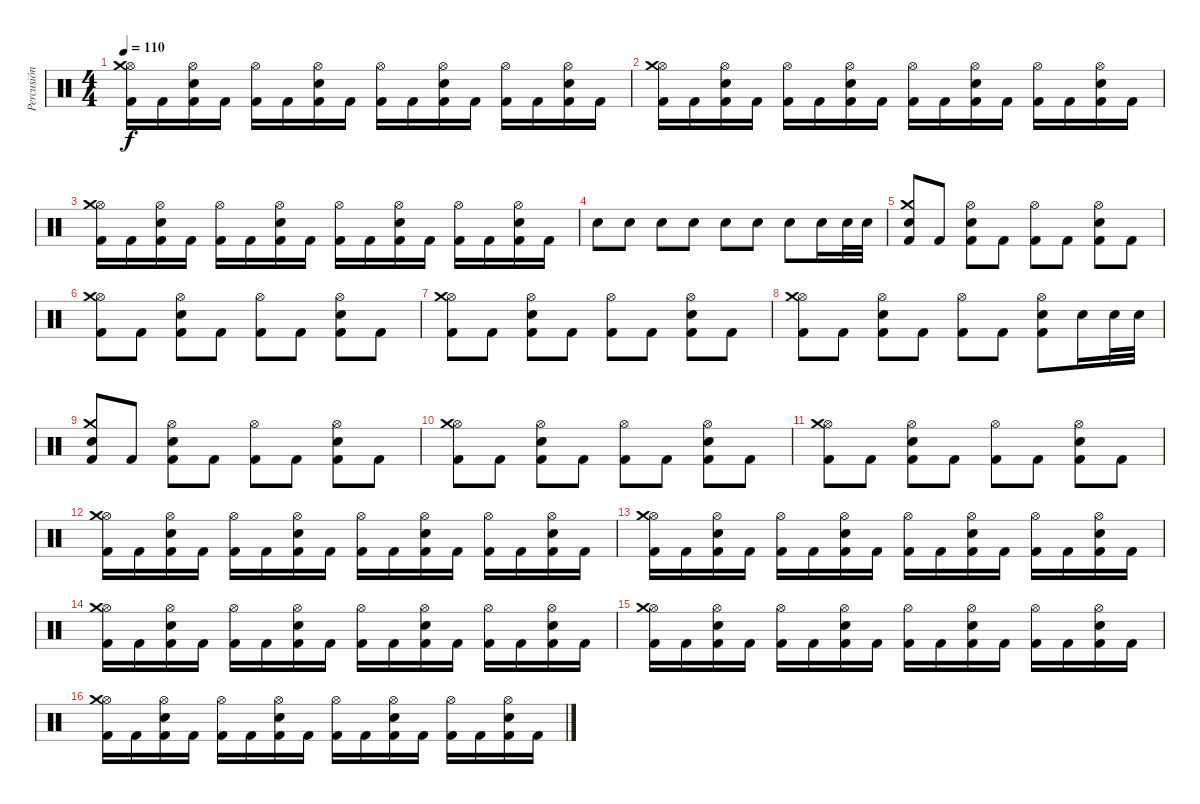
\track ("Percusión" "Percusión") {instrument percussion}
\staff {score}
\articulation defaults
\ts (4 4)
\tempo 110
\clef neutral
\ks c
("Hi-Hat (open)" "Kick (hit) 2" "Crash medium (hit)").16{dy f} "Kick (hit) 2".16 ("Hi-Hat (open)" "Electric Snare (hit)" "Kick (hit) 2").16 "Kick (hit) 2".16 ("Hi-Hat (open)" "Kick (hit) 2").16 "Kick (hit) 2".16 ("Hi-Hat (open)" "Electric Snare (hit)" "Kick (hit) 2").16 "Kick (hit) 2".16 ("Hi-Hat (open)" "Kick (hit) 2").16 "Kick (hit) 2".16 ("Hi-Hat (open)" "Electric Snare (hit)" "Kick (hit) 2").16 "Kick (hit) 2".16 ("Hi-Hat (open)" "Kick (hit) 2").16 "Kick (hit) 2".16 ("Hi-Hat (open)" "Electric Snare (hit)" "Kick (hit) 2").16 "Kick (hit) 2".16 |
("Hi-Hat (open)" "Kick (hit) 2" "Crash medium (hit)").16 "Kick (hit) 2".16 ("Hi-Hat (open)" "Electric Snare (hit)" "Kick (hit) 2").16 "Kick (hit) 2".16 ("Hi-Hat (open)" "Kick (hit) 2").16 "Kick (hit) 2".16 ("Hi-Hat (open)" "Electric Snare (hit)" "Kick (hit) 2").16 "Kick (hit) 2".16 ("Hi-Hat (open)" "Kick (hit) 2").16 "Kick (hit) 2".16 ("Hi-Hat (open)" "Electric Snare (hit)" "Kick (hit) 2").16 "Kick (hit) 2".16 ("Hi-Hat (open)" "Kick (hit) 2").16 "Kick (hit) 2".16 ("Hi-Hat (open)" "Electric Snare (hit)" "Kick (hit) 2").16 "Kick (hit) 2".16 |
("Hi-Hat (open)" "Kick (hit) 2" "Crash medium (hit)").16 "Kick (hit) 2".16 ("Hi-Hat (open)" "Electric Snare (hit)" "Kick (hit) 2").16 "Kick (hit) 2".16 ("Hi-Hat (open)" "Kick (hit) 2").16 "Kick (hit) 2".16 ("Hi-Hat (open)" "Electric Snare (hit)" "Kick (hit) 2").16 "Kick (hit) 2".16 ("Hi-Hat (open)" "Kick (hit) 2").16 "Kick (hit) 2".16 ("Hi-Hat (open)" "Electric Snare (hit)" "Kick (hit) 2").16 "Kick (hit) 2".16 ("Hi-Hat (open)" "Kick (hit) 2").16 "Kick (hit) 2".16 ("Hi-Hat (open)" "Electric Snare (hit)" "Kick (hit) 2").16 "Kick (hit) 2".16 |
"Electric Snare (hit)".8 "Electric Snare (hit)".8 "Electric Snare (hit)".8 "Electric Snare (hit)".8 "Electric Snare (hit)".8 "Electric Snare (hit)".8 "Electric Snare (hit)".8 "Electric Snare (hit)".16 "Electric Snare (hit)".32 "Electric Snare (hit)".32 |
("Kick (hit) 2" "Electric Snare (hit)" "Crash medium (hit)").8 "Kick (hit) 2".8 ("Hi-Hat (open)" "Electric Snare (hit)" "Kick (hit) 2").8 "Kick (hit) 2".8 ("Hi-Hat (open)" "Kick (hit) 2").8 "Kick (hit) 2".8 ("Hi-Hat (open)" "Electric Snare (hit)" "Kick (hit) 2").8 "Kick (hit) 2".8 |
("Hi-Hat (open)" "Kick (hit) 2" "Crash medium (hit)").8 "Kick (hit) 2".8 ("Hi-Hat (open)" "Electric Snare (hit)" "Kick (hit) 2").8 "Kick (hit) 2".8 ("Hi-Hat (open)" "Kick (hit) 2").8 "Kick (hit) 2".8 ("Hi-Hat (open)" "Electric Snare (hit)" "Kick (hit) 2").8 "Kick (hit) 2".8 |
("Hi-Hat (open)" "Kick (hit) 2" "Crash medium (hit)").8 "Kick (hit) 2".8 ("Hi-Hat (open)" "Electric Snare (hit)" "Kick (hit) 2").8 "Kick (hit) 2".8 ("Hi-Hat (open)" "Kick (hit) 2").8 "Kick (hit) 2".8 ("Hi-Hat (open)" "Electric Snare (hit)" "Kick (hit) 2").8 "Kick (hit) 2".8 |
("Hi-Hat (open)" "Kick (hit) 2" "Crash medium (hit)").8 "Kick (hit) 2".8 ("Hi-Hat (open)" "Electric Snare (hit)" "Kick (hit) 2").8 "Kick (hit) 2".8 ("Hi-Hat (open)" "Kick (hit) 2").8 "Kick (hit) 2".8 ("Hi-Hat (open)" "Electric Snare (hit)" "Kick (hit) 2").8 "Electric Snare (hit)".16 "Electric Snare (hit)".32 "Electric Snare (hit)".32 |
("Kick (hit) 2" "Electric Snare (hit)" "Crash medium (hit)").8 "Kick (hit) 2".8 ("Hi-Hat (open)" "Electric Snare (hit)" "Kick (hit) 2").8 "Kick (hit) 2".8 ("Hi-Hat (open)" "Kick (hit) 2").8 "Kick (hit) 2".8 ("Hi-Hat (open)" "Electric Snare (hit)" "Kick (hit) 2").8 "Kick (hit) 2".8 |
("Hi-Hat (open)" "Kick (hit) 2" "Crash medium (hit)").8 "Kick (hit) 2".8 ("Hi-Hat (open)" "Electric Snare (hit)" "Kick (hit) 2").8 "Kick (hit) 2".8 ("Hi-Hat (open)" "Kick (hit) 2").8 "Kick (hit) 2".8 ("Hi-Hat (open)" "Electric Snare (hit)" "Kick (hit) 2").8 "Kick (hit) 2".8 |
("Hi-Hat (open)" "Kick (hit) 2" "Crash medium (hit)").8 "Kick (hit) 2".8 ("Hi-Hat (open)" "Electric Snare (hit)" "Kick (hit) 2").8 "Kick (hit) 2".8 ("Hi-Hat (open)" "Kick (hit) 2").8 "Kick (hit) 2".8 ("Hi-Hat (open)" "Electric Snare (hit)" "Kick (hit) 2").8 "Kick (hit) 2".8 |
("Hi-Hat (open)" "Kick (hit) 2" "Crash medium (hit)").16 "Kick (hit) 2".16 ("Hi-Hat (open)" "Electric Snare (hit)" "Kick (hit) 2").16 "Kick (hit) 2".16 ("Hi-Hat (open)" "Kick (hit) 2").16 "Kick (hit) 2".16 ("Hi-Hat (open)" "Electric Snare (hit)" "Kick (hit) 2").16 "Kick (hit) 2".16 ("Hi-Hat (open)" "Kick (hit) 2").16 "Kick (hit) 2".16 ("Hi-Hat (open)" "Electric Snare (hit)" "Kick (hit) 2").16 "Kick (hit) 2".16 ("Hi-Hat (open)" "Kick (hit) 2").16 "Kick (hit) 2".16 ("Hi-Hat (open)" "Electric Snare (hit)" "Kick (hit) 2").16 "Kick (hit) 2".16 |
("Hi-Hat (open)" "Kick (hit) 2" "Crash medium (hit)").16 "Kick (hit) 2".16 ("Hi-Hat (open)" "Electric Snare (hit)" "Kick (hit) 2").16 "Kick (hit) 2".16 ("Hi-Hat (open)" "Kick (hit) 2").16 "Kick (hit) 2".16 ("Hi-Hat (open)" "Electric Snare (hit)" "Kick (hit) 2").16 "Kick (hit) 2".16 ("Hi-Hat (open)" "Kick (hit) 2").16 "Kick (hit) 2".16 ("Hi-Hat (open)" "Electric Snare (hit)" "Kick (hit) 2").16 "Kick (hit) 2".16 ("Hi-Hat (open)" "Kick (hit) 2").16 "Kick (hit) 2".16 ("Hi-Hat (open)" "Electric Snare (hit)" "Kick (hit) 2").16 "Kick (hit) 2".16 |
("Hi-Hat (open)" "Kick (hit) 2" "Crash medium (hit)").16 "Kick (hit) 2".16 ("Hi-Hat (open)" "Electric Snare (hit)" "Kick (hit) 2").16 "Kick (hit) 2".16 ("Hi-Hat (open)" "Kick (hit) 2").16 "Kick (hit) 2".16 ("Hi-Hat (open)" "Electric Snare (hit)" "Kick (hit) 2").16 "Kick (hit) 2".16 ("Hi-Hat (open)" "Kick (hit) 2").16 "Kick (hit) 2".16 ("Hi-Hat (open)" "Electric Snare (hit)" "Kick (hit) 2").16 "Kick (hit) 2".16 ("Hi-Hat (open)" "Kick (hit) 2").16 "Kick (hit) 2".16 ("Hi-Hat (open)" "Electric Snare (hit)" "Kick (hit) 2").16 "Kick (hit) 2".16 |
("Hi-Hat (open)" "Kick (hit) 2" "Crash medium (hit)").16 "Kick (hit) 2".16 ("Hi-Hat (open)" "Electric Snare (hit)" "Kick (hit) 2").16 "Kick (hit) 2".16 ("Hi-Hat (open)" "Kick (hit) 2").16 "Kick (hit) 2".16 ("Hi-Hat (open)" "Electric Snare (hit)" "Kick (hit) 2").16 "Kick (hit) 2".16 ("Hi-Hat (open)" "Kick (hit) 2").16 "Kick (hit) 2".16 ("Hi-Hat (open)" "Electric Snare (hit)" "Kick (hit) 2").16 "Kick (hit) 2".16 ("Hi-Hat (open)" "Kick (hit) 2").16 "Kick (hit) 2".16 ("Hi-Hat (open)" "Electric Snare (hit)" "Kick (hit) 2").16 "Kick (hit) 2".16 |
("Hi-Hat (open)" "Kick (hit) 2" "Crash medium (hit)").16 "Kick (hit) 2".16 ("Hi-Hat (open)" "Electric Snare (hit)" "Kick (hit) 2").16 "Kick (hit) 2".16 ("Hi-Hat (open)" "Kick (hit) 2").16 "Kick (hit) 2".16 ("Hi-Hat (open)" "Electric Snare (hit)" "Kick (hit) 2").16 "Kick (hit) 2".16 ("Hi-Hat (open)" "Kick (hit) 2").16 "Kick (hit) 2".16 ("Hi-Hat (open)" "Electric Snare (hit)" "Kick (hit) 2").16 "Kick (hit) 2".16 ("Hi-Hat (open)" "Kick (hit) 2").16 "Kick (hit) 2".16 ("Hi-Hat (open)" "Electric Snare (hit)" "Kick (hit) 2").16 "Kick (hit) 2".16
